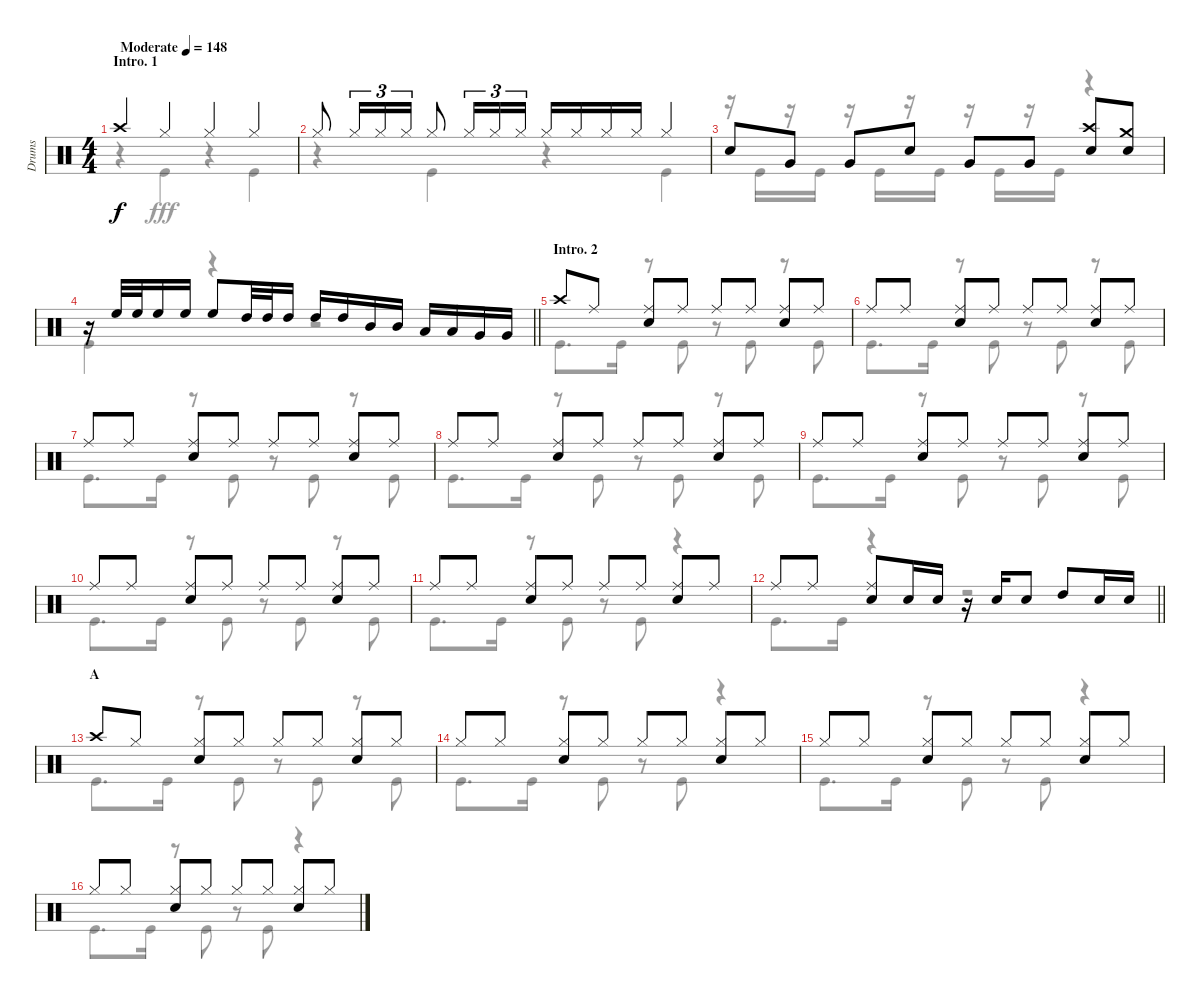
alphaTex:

\track ("Drums" "Drums") {instrument percussion}
\staff {score}
\articulation defaults
\voice
\ts (4 4)
\section ("" "Intro. 1")
\tempo (148 "Moderate")
\clef neutral
\ks c "Crash high (hit)".4{dy f} "Hi-Hat (closed)".4 "Hi-Hat (closed)".4 "Hi-Hat (closed)".4
|
"Hi-Hat (closed)".8 "Hi-Hat (closed)".16{tu (3 2)} "Hi-Hat (closed)".16{tu (3 2)} "Hi-Hat (closed)".16{tu (3 2)} "Hi-Hat (closed)".8 "Hi-Hat (closed)".16{tu (3 2)} "Hi-Hat (closed)".16{tu (3 2)} "Hi-Hat (closed)".16{tu (3 2)} "Hi-Hat (closed)".16 "Hi-Hat (closed)".16 "Hi-Hat (closed)".16 "Hi-Hat (closed)".16 "Hi-Hat (closed)".4 |
"Snare (hit) 2".8 "Very Low Tom (hit)".8 "Very Low Tom (hit)".8 "Snare (hit) 2".8 "Very Low Tom (hit)".8 "Very Low Tom (hit)".8 ("Crash high (hit)" "Snare (hit) 2").8 ("Crash medium (hit)" "Snare (hit) 2").8 |
\barLineRight lightlight
r.16 "High Floor Tom (hit)".32 "High Floor Tom (hit)".32 "High Floor Tom (hit)".16 "High Floor Tom (hit)".16 "High Floor Tom (hit)".8 "High Tom (hit)".32 "High Tom (hit)".32 "High Tom (hit)".16 "High Tom (hit)".16 "High Tom (hit)".16 "Mid Tom (hit)".16 "Mid Tom (hit)".16 "Low Tom (hit)".16 "Low Tom (hit)".16 "Very Low Tom (hit)".16 "Very Low Tom (hit)".16 |
\section ("" "Intro. 2")
"Crash high (hit)".8 "Ride (middle)".8 ("Ride (middle)" "Snare (hit) 2").8 "Ride (middle)".8 "Ride (middle)".8 "Ride (middle)".8 ("Ride (middle)" "Snare (hit) 2").8 "Ride (middle)".8 |
"Ride (middle)".8 "Ride (middle)".8 ("Ride (middle)" "Snare (hit) 2").8 "Ride (middle)".8 "Ride (middle)".8 "Ride (middle)".8 ("Ride (middle)" "Snare (hit) 2").8 "Ride (middle)".8 |
"Ride (middle)".8 "Ride (middle)".8 ("Ride (middle)" "Snare (hit) 2").8 "Ride (middle)".8 "Ride (middle)".8 "Ride (middle)".8 ("Ride (middle)" "Snare (hit) 2").8 "Ride (middle)".8 |
"Ride (middle)".8 "Ride (middle)".8 ("Ride (middle)" "Snare (hit) 2").8 "Ride (middle)".8 "Ride (middle)".8 "Ride (middle)".8 ("Ride (middle)" "Snare (hit) 2").8 "Ride (middle)".8 |
"Ride (middle)".8 "Ride (middle)".8 ("Ride (middle)" "Snare (hit) 2").8 "Ride (middle)".8 "Ride (middle)".8 "Ride (middle)".8 ("Ride (middle)" "Snare (hit) 2").8 "Ride (middle)".8 |
"Ride (middle)".8 "Ride (middle)".8 ("Ride (middle)" "Snare (hit) 2").8 "Ride (middle)".8 "Ride (middle)".8 "Ride (middle)".8 ("Ride (middle)" "Snare (hit) 2").8 "Ride (middle)".8 |
"Ride (middle)".8 "Ride (middle)".8 ("Ride (middle)" "Snare (hit) 2").8 "Ride (middle)".8 "Ride (middle)".8 "Ride (middle)".8 ("Ride (middle)" "Snare (hit) 2").8 "Ride (middle)".8 |
\barLineRight lightlight "Ride (middle)".8 "Ride (middle)".8
("Ride (middle)" "Snare (hit) 2").8 "Snare (hit) 2".16 "Snare (hit) 2".16 r.16 "Snare (hit) 2".16 "Snare (hit) 2".8 "High Tom (hit)".8 "Snare (hit) 2".16 "Snare (hit) 2".16 |
\section ("" "A")
"Crash high (hit)".8 "Hi-Hat (closed)".8 ("Hi-Hat (closed)" "Snare (hit) 2").8 "Hi-Hat (closed)".8 "Hi-Hat (closed)".8 "Hi-Hat (closed)".8 ("Hi-Hat (closed)" "Snare (hit) 2").8 "Hi-Hat (closed)".8 |
"Hi-Hat (closed)".8 "Hi-Hat (closed)".8 ("Hi-Hat (closed)" "Snare (hit) 2").8 "Hi-Hat (closed)".8 "Hi-Hat (closed)".8 "Hi-Hat (closed)".8 ("Hi-Hat (closed)" "Snare (hit) 2").8 "Hi-Hat (closed)".8 |
"Hi-Hat (closed)".8 "Hi-Hat (closed)".8 ("Hi-Hat (closed)" "Snare (hit) 2").8 "Hi-Hat (closed)".8 "Hi-Hat (closed)".8 "Hi-Hat (closed)".8 ("Hi-Hat (closed)" "Snare (hit) 2").8 "Hi-Hat (closed)".8 |
"Hi-Hat (closed)".8 "Hi-Hat (closed)".8 ("Hi-Hat (closed)" "Snare (hit) 2").8 "Hi-Hat (closed)".8 "Hi-Hat (closed)".8 "Hi-Hat (closed)".8 ("Hi-Hat (closed)" "Snare (hit) 2").8 "Hi-Hat (closed)".8
\voice
\clef neutral
\ottava regular
\simile none
\ks c
r.4{dy fff} "Kick (hit)".4 r.4 "Kick (hit)".4 |
r.4 "Kick (hit)".4 r.4 "Kick (hit)".4 |
r.16 "Kick (hit)".16 r.16 "Kick (hit)".16 r.16 "Kick (hit)".16 r.16 "Kick (hit)".16 r.16 "Kick (hit)".16 r.16 "Kick (hit)".16 r.4 |
\barLineRight lightlight "Kick (hit)".4
r.4 r.2 |
"Kick (hit)".8{d} "Kick (hit)".16 r.8 "Kick (hit)".8 r.8 "Kick (hit)".8 r.8 "Kick (hit)".8 |
"Kick (hit)".8{d} "Kick (hit)".16 r.8 "Kick (hit)".8 r.8 "Kick (hit)".8 r.8 "Kick (hit)".8 |
"Kick (hit)".8{d} "Kick (hit)".16 r.8 "Kick (hit)".8 r.8 "Kick (hit)".8 r.8 "Kick (hit)".8 |
"Kick (hit)".8{d} "Kick (hit)".16 r.8 "Kick (hit)".8 r.8 "Kick (hit)".8 r.8 "Kick (hit)".8 |
"Kick (hit)".8{d} "Kick (hit)".16 r.8 "Kick (hit)".8 r.8 "Kick (hit)".8 r.8 "Kick (hit)".8 |
"Kick (hit)".8{d} "Kick (hit)".16 r.8 "Kick (hit)".8 r.8 "Kick (hit)".8 r.8 "Kick (hit)".8 |
"Kick (hit)".8{d} "Kick (hit)".16 r.8 "Kick (hit)".8 r.8 "Kick (hit)".8 r.4 |
\barLineRight lightlight "Kick (hit)".8{d} "Kick (hit)".16
r.4 r.2 |
"Kick (hit)".8{d} "Kick (hit)".16 r.8 "Kick (hit)".8 r.8 "Kick (hit)".8 r.8 "Kick (hit)".8 |
"Kick (hit)".8{d} "Kick (hit)".16 r.8 "Kick (hit)".8 r.8 "Kick (hit)".8 r.4 |
"Kick (hit)".8{d} "Kick (hit)".16 r.8 "Kick (hit)".8 r.8 "Kick (hit)".8 r.4 |
"Kick (hit)".8{d} "Kick (hit)".16 r.8 "Kick (hit)".8 r.8 "Kick (hit)".8 r.4
